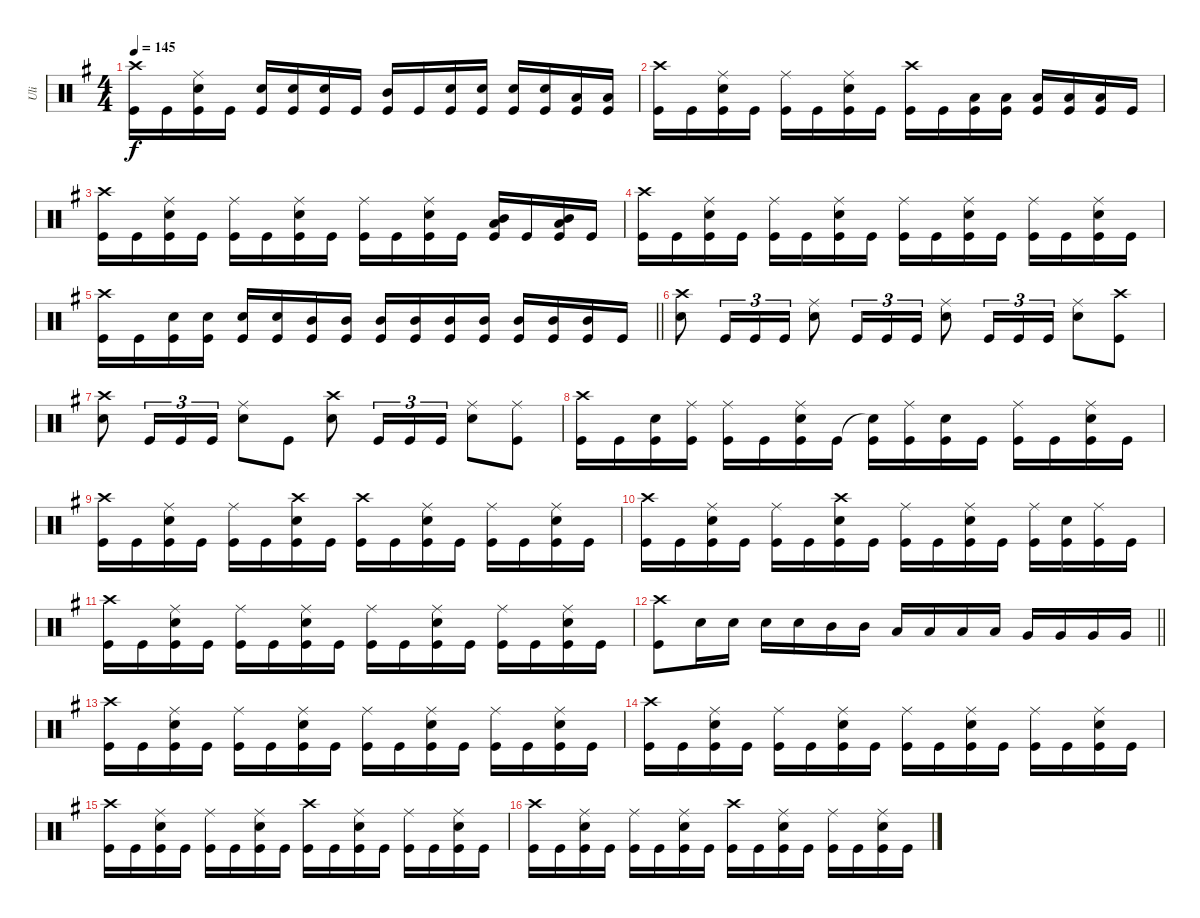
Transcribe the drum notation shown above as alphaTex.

\track ("Uli" "Uli") {instrument percussion}
\staff {score}
\articulation defaults
\ts (4 4)
\tempo 145
\clef neutral
\ks eminor
("Crash high (hit)" "Kick (hit)").16{dy f} "Kick (hit)".16 ("Ride (middle)" "Snare (hit) 2" "Kick (hit)").16 "Kick (hit)".16 ("Snare (hit) 2" "Kick (hit)").16 ("Snare (hit) 2" "Kick (hit)").16 ("Snare (hit) 2" "Kick (hit)").16 "Kick (hit)".16 ("Mid Tom (hit)" "Kick (hit)").16 "Kick (hit)".16 ("Snare (hit) 2" "Kick (hit)").16 ("Snare (hit) 2" "Kick (hit)").16 ("Snare (hit) 2" "Kick (hit)").16 ("Snare (hit) 2" "Kick (hit)").16 ("Low Tom (hit)" "Kick (hit)").16 ("Low Tom (hit)" "Kick (hit)").16 |
("Crash high (hit)" "Kick (hit)").16 "Kick (hit)".16 ("Ride (middle)" "Snare (hit) 2" "Kick (hit)").16 "Kick (hit)".16 ("Ride (middle)" "Kick (hit)").16 "Kick (hit)".16 ("Ride (middle)" "Snare (hit) 2" "Kick (hit)").16 "Kick (hit)".16 ("Crash high (hit)" "Kick (hit)").16 "Kick (hit)".16 ("Low Tom (hit)" "Kick (hit)").16 ("Low Tom (hit)" "Kick (hit)").16 ("Low Tom (hit)" "Kick (hit)").16 ("Low Tom (hit)" "Kick (hit)").16 ("Low Tom (hit)" "Kick (hit)").16 "Kick (hit)".16 |
("Crash high (hit)" "Kick (hit)").16 "Kick (hit)".16 ("Ride (middle)" "Snare (hit) 2" "Kick (hit)").16 "Kick (hit)".16 ("Ride (middle)" "Kick (hit)").16 "Kick (hit)".16 ("Ride (middle)" "Snare (hit) 2" "Kick (hit)").16 "Kick (hit)".16 ("Ride (middle)" "Kick (hit)").16 "Kick (hit)".16 ("Ride (middle)" "Snare (hit) 2" "Kick (hit)").16 "Kick (hit)".16 ("Mid Tom (hit)" "Low Tom (hit)" "Kick (hit)").16 "Kick (hit)".16 ("Mid Tom (hit)" "Low Tom (hit)" "Kick (hit)").16 "Kick (hit)".16 |
("Crash high (hit)" "Kick (hit)").16 "Kick (hit)".16 ("Ride (middle)" "Snare (hit) 2" "Kick (hit)").16 "Kick (hit)".16 ("Ride (middle)" "Kick (hit)").16 "Kick (hit)".16 ("Ride (middle)" "Snare (hit) 2" "Kick (hit)").16 "Kick (hit)".16 ("Ride (middle)" "Kick (hit)").16 "Kick (hit)".16 ("Ride (middle)" "Snare (hit) 2" "Kick (hit)").16 "Kick (hit)".16 ("Ride (middle)" "Kick (hit)").16 "Kick (hit)".16 ("Ride (middle)" "Snare (hit) 2" "Kick (hit)").16 "Kick (hit)".16 |
\barLineRight lightlight
("Crash high (hit)" "Kick (hit)").16 "Kick (hit)".16 ("Snare (hit) 2" "Kick (hit)").16 ("Snare (hit) 2" "Kick (hit)").16 ("Snare (hit) 2" "Kick (hit)").16 ("Snare (hit) 2" "Kick (hit)").16 ("Mid Tom (hit)" "Kick (hit)").16 ("Mid Tom (hit)" "Kick (hit)").16 ("Mid Tom (hit)" "Kick (hit)").16 ("Mid Tom (hit)" "Kick (hit)").16 ("Mid Tom (hit)" "Kick (hit)").16 ("Mid Tom (hit)" "Kick (hit)").16 ("Mid Tom (hit)" "Kick (hit)").16 ("Mid Tom (hit)" "Kick (hit)").16 ("Mid Tom (hit)" "Kick (hit)").16 "Kick (hit)".16 |
("Crash high (hit)" "Snare (hit) 2").8 "Kick (hit)".16{tu (3 2)} "Kick (hit)".16{tu (3 2)} "Kick (hit)".16{tu (3 2)} ("Ride (middle)" "Snare (hit) 2").8 "Kick (hit)".16{tu (3 2)} "Kick (hit)".16{tu (3 2)} "Kick (hit)".16{tu (3 2)} ("Ride (middle)" "Snare (hit) 2").8 "Kick (hit)".16{tu (3 2)} "Kick (hit)".16{tu (3 2)} "Kick (hit)".16{tu (3 2)} ("Ride (middle)" "Snare (hit) 2").8 ("Crash high (hit)" "Kick (hit)").8 |
("Crash high (hit)" "Snare (hit) 2").8 "Kick (hit)".16{tu (3 2)} "Kick (hit)".16{tu (3 2)} "Kick (hit)".16{tu (3 2)} ("Ride (middle)" "Snare (hit) 2").8 "Kick (hit)".8 ("Crash high (hit)" "Snare (hit) 2").8 "Kick (hit)".16{tu (3 2)} "Kick (hit)".16{tu (3 2)} "Kick (hit)".16{tu (3 2)} ("Ride (middle)" "Snare (hit) 2").8 ("Ride (middle)" "Kick (hit)").8 |
("Crash high (hit)" "Kick (hit)").16 "Kick (hit)".16 ("Snare (hit) 2" "Kick (hit)").16 ("Ride (middle)" "Kick (hit)").16 ("Ride (middle)" "Kick (hit)").16 "Kick (hit)".16 ("Ride (middle)" "Snare (hit) 2" "Kick (hit)").16 "Kick (hit)".16 ("Snare (hit)"{t} "Kick (hit)").16 ("Ride (middle)" "Kick (hit)").16 ("Snare (hit) 2" "Kick (hit)").16 "Kick (hit)".16 ("Ride (middle)" "Kick (hit)").16 "Kick (hit)".16 ("Ride (middle)" "Snare (hit) 2" "Kick (hit)").16 "Kick (hit)".16 |
("Crash high (hit)" "Kick (hit)").16 "Kick (hit)".16 ("Ride (middle)" "Snare (hit) 2" "Kick (hit)").16 "Kick (hit)".16 ("Ride (middle)" "Kick (hit)").16 "Kick (hit)".16 ("Crash high (hit)" "Snare (hit) 2" "Kick (hit)").16 "Kick (hit)".16 ("Crash high (hit)" "Kick (hit)").16 "Kick (hit)".16 ("Ride (middle)" "Snare (hit) 2" "Kick (hit)").16 "Kick (hit)".16 ("Ride (middle)" "Kick (hit)").16 "Kick (hit)".16 ("Ride (middle)" "Snare (hit) 2" "Kick (hit)").16 "Kick (hit)".16 |
("Crash high (hit)" "Kick (hit)").16 "Kick (hit)".16 ("Ride (middle)" "Snare (hit) 2" "Kick (hit)").16 "Kick (hit)".16 ("Ride (middle)" "Kick (hit)").16 "Kick (hit)".16 ("Crash high (hit)" "Snare (hit) 2" "Kick (hit)").16 "Kick (hit)".16 ("Ride (middle)" "Kick (hit)").16 "Kick (hit)".16 ("Ride (middle)" "Snare (hit) 2" "Kick (hit)").16 "Kick (hit)".16 ("Ride (middle)" "Kick (hit)").16 ("Snare (hit) 2" "Kick (hit)").16 ("Ride (middle)" "Kick (hit)").16 "Kick (hit)".16 |
("Crash high (hit)" "Kick (hit)").16 "Kick (hit)".16 ("Ride (middle)" "Snare (hit) 2" "Kick (hit)").16 "Kick (hit)".16 ("Ride (middle)" "Kick (hit)").16 "Kick (hit)".16 ("Ride (middle)" "Snare (hit) 2" "Kick (hit)").16 "Kick (hit)".16 ("Ride (middle)" "Kick (hit)").16 "Kick (hit)".16 ("Ride (middle)" "Snare (hit) 2" "Kick (hit)").16 "Kick (hit)".16 ("Ride (middle)" "Kick (hit)").16 "Kick (hit)".16 ("Ride (middle)" "Snare (hit) 2" "Kick (hit)").16 "Kick (hit)".16 |
\barLineRight lightlight
("Crash high (hit)" "Kick (hit)").8 "Snare (hit) 2".16 "Snare (hit) 2".16 "Snare (hit) 2".16 "Snare (hit) 2".16 "Mid Tom (hit)".16 "Mid Tom (hit)".16 "Low Tom (hit)".16 "Low Tom (hit)".16 "Low Tom (hit)".16 "Low Tom (hit)".16 "Very Low Tom (hit)".16 "Very Low Tom (hit)".16 "Very Low Tom (hit)".16 "Very Low Tom (hit)".16 |
("Crash high (hit)" "Kick (hit)").16 "Kick (hit)".16 ("Ride (middle)" "Snare (hit) 2" "Kick (hit)").16 "Kick (hit)".16 ("Ride (middle)" "Kick (hit)").16 "Kick (hit)".16 ("Ride (middle)" "Snare (hit) 2" "Kick (hit)").16 "Kick (hit)".16 ("Ride (middle)" "Kick (hit)").16 "Kick (hit)".16 ("Ride (middle)" "Snare (hit) 2" "Kick (hit)").16 "Kick (hit)".16 ("Ride (middle)" "Kick (hit)").16 "Kick (hit)".16 ("Ride (middle)" "Snare (hit) 2" "Kick (hit)").16 "Kick (hit)".16 |
("Crash high (hit)" "Kick (hit)").16 "Kick (hit)".16 ("Ride (middle)" "Snare (hit) 2" "Kick (hit)").16 "Kick (hit)".16 ("Ride (middle)" "Kick (hit)").16 "Kick (hit)".16 ("Ride (middle)" "Snare (hit) 2" "Kick (hit)").16 "Kick (hit)".16 ("Ride (middle)" "Kick (hit)").16 "Kick (hit)".16 ("Ride (middle)" "Snare (hit) 2" "Kick (hit)").16 "Kick (hit)".16 ("Ride (middle)" "Kick (hit)").16 "Kick (hit)".16 ("Ride (middle)" "Snare (hit) 2" "Kick (hit)").16 "Kick (hit)".16 |
("Crash high (hit)" "Kick (hit)").16 "Kick (hit)".16 ("Ride (middle)" "Snare (hit) 2" "Kick (hit)").16 "Kick (hit)".16 ("Ride (middle)" "Kick (hit)").16 "Kick (hit)".16 ("Ride (middle)" "Snare (hit) 2" "Kick (hit)").16 "Kick (hit)".16 ("Crash high (hit)" "Kick (hit)").16 "Kick (hit)".16 ("Ride (middle)" "Snare (hit) 2" "Kick (hit)").16 "Kick (hit)".16 ("Ride (middle)" "Kick (hit)").16 "Kick (hit)".16 ("Ride (middle)" "Snare (hit) 2" "Kick (hit)").16 "Kick (hit)".16 |
("Crash high (hit)" "Kick (hit)").16 "Kick (hit)".16 ("Ride (middle)" "Snare (hit) 2" "Kick (hit)").16 "Kick (hit)".16 ("Ride (middle)" "Kick (hit)").16 "Kick (hit)".16 ("Ride (middle)" "Snare (hit) 2" "Kick (hit)").16 "Kick (hit)".16 ("Crash high (hit)" "Kick (hit)").16 "Kick (hit)".16 ("Ride (middle)" "Snare (hit) 2" "Kick (hit)").16 "Kick (hit)".16 ("Ride (middle)" "Kick (hit)").16 "Kick (hit)".16 ("Ride (middle)" "Snare (hit) 2" "Kick (hit)").16 "Kick (hit)".16
